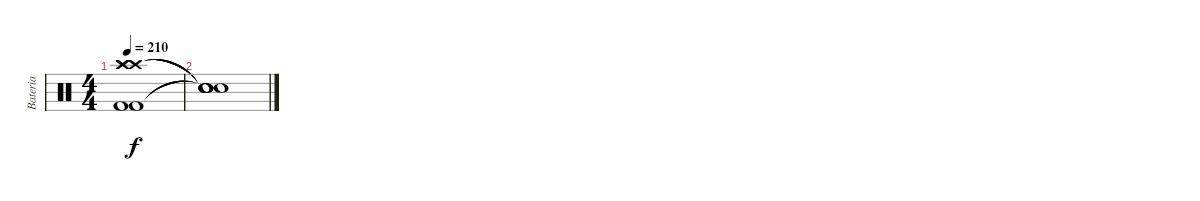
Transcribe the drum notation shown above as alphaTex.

\track ("Bateria" "Bateria") {instrument percussion}
\staff {score}
\articulation defaults
\ts (4 4)
\tempo 210
\clef neutral
\ks c
("Crash high (hit)" "Crash high (hit)" "Crash high (hit)" "Kick (hit) 2" "Kick (hit) 2").1{dy f} |
("Snare (hit)"{t} "Snare (hit)"{t} "Snare (hit)"{t} "Snare (hit)"{t} "Snare (hit)"{t}).1
